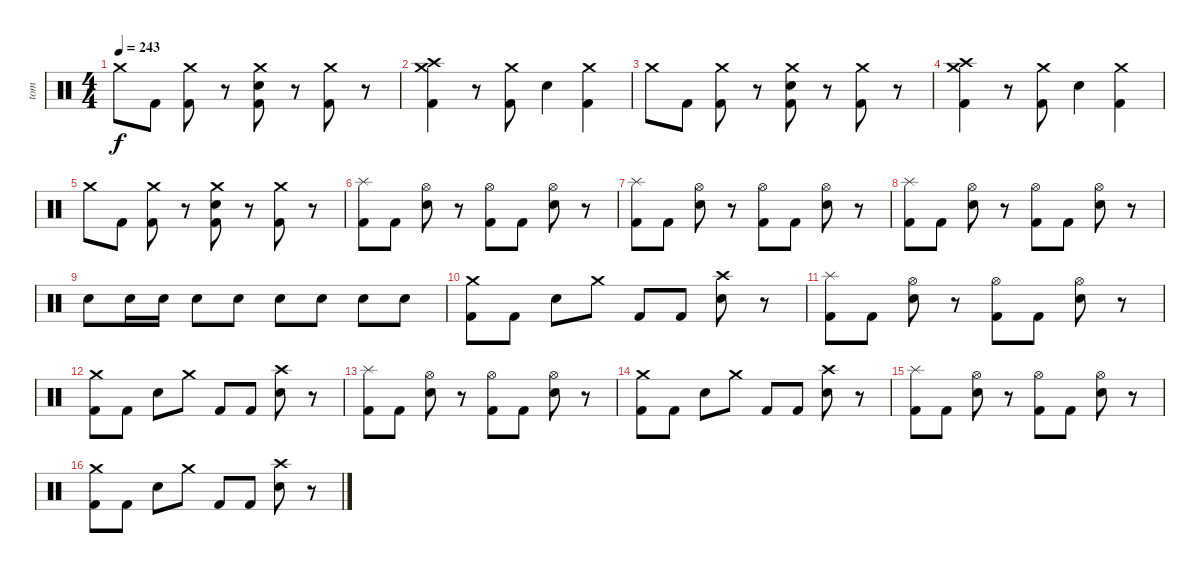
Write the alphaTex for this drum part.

\track ("tom" "tom") {instrument percussion}
\staff {score}
\articulation defaults
\ts (4 4)
\tempo 243
\clef neutral
\ks c "Crash medium (hit)".8{dy f} "Kick (hit) 2".8
("Crash medium (hit)" "Kick (hit) 2").8 r.8 ("Crash medium (hit)" "Electric Snare (hit)" "Kick (hit) 2").8 r.8 ("Crash medium (hit)" "Kick (hit) 2").8 r.8 |
("Crash high (hit)" "Crash medium (hit)" "Kick (hit) 2").4 r.8 ("Crash medium (hit)" "Kick (hit) 2").8 "Electric Snare (hit)".4 ("Crash medium (hit)" "Kick (hit) 2").4 |
"Crash medium (hit)".8 "Kick (hit) 2".8 ("Crash medium (hit)" "Kick (hit) 2").8 r.8 ("Crash medium (hit)" "Electric Snare (hit)" "Kick (hit) 2").8 r.8 ("Crash medium (hit)" "Kick (hit) 2").8 r.8 |
("Crash high (hit)" "Crash medium (hit)" "Kick (hit) 2").4 r.8 ("Crash medium (hit)" "Kick (hit) 2").8 "Electric Snare (hit)".4 ("Crash medium (hit)" "Kick (hit) 2").4 |
"Crash medium (hit)".8 "Kick (hit) 2".8 ("Crash medium (hit)" "Kick (hit) 2").8 r.8 ("Crash medium (hit)" "Electric Snare (hit)" "Kick (hit) 2").8 r.8 ("Crash medium (hit)" "Kick (hit) 2").8 r.8 |
("Splash (hit)" "Kick (hit) 2").8 "Kick (hit) 2".8 ("Hi-Hat (open)" "Electric Snare (hit)").8 r.8 ("Hi-Hat (open)" "Kick (hit) 2").8 "Kick (hit) 2".8 ("Hi-Hat (open)" "Electric Snare (hit)").8 r.8 |
("Splash (hit)" "Kick (hit) 2").8 "Kick (hit) 2".8 ("Hi-Hat (open)" "Electric Snare (hit)").8 r.8 ("Hi-Hat (open)" "Kick (hit) 2").8 "Kick (hit) 2".8 ("Hi-Hat (open)" "Electric Snare (hit)").8 r.8 |
("Splash (hit)" "Kick (hit) 2").8 "Kick (hit) 2".8 ("Hi-Hat (open)" "Electric Snare (hit)").8 r.8 ("Hi-Hat (open)" "Kick (hit) 2").8 "Kick (hit) 2".8 ("Hi-Hat (open)" "Electric Snare (hit)").8 r.8 |
"Electric Snare (hit)".8 "Electric Snare (hit)".16 "Electric Snare (hit)".16 "Electric Snare (hit)".8 "Electric Snare (hit)".8 "Electric Snare (hit)".8 "Electric Snare (hit)".8 "Electric Snare (hit)".8 "Electric Snare (hit)".8 |
("Crash medium (hit)" "Kick (hit) 2").8 "Kick (hit) 2".8 "Electric Snare (hit)".8 "Crash medium (hit)".8 "Kick (hit) 2".8 "Kick (hit) 2".8 ("Crash high (hit)" "Electric Snare (hit)").8 r.8 |
("Splash (hit)" "Kick (hit) 2").8 "Kick (hit) 2".8 ("Hi-Hat (open)" "Electric Snare (hit)").8 r.8 ("Hi-Hat (open)" "Kick (hit) 2").8 "Kick (hit) 2".8 ("Hi-Hat (open)" "Electric Snare (hit)").8 r.8 |
("Crash medium (hit)" "Kick (hit) 2").8 "Kick (hit) 2".8 "Electric Snare (hit)".8 "Crash medium (hit)".8 "Kick (hit) 2".8 "Kick (hit) 2".8 ("Crash high (hit)" "Electric Snare (hit)").8 r.8 |
("Splash (hit)" "Kick (hit) 2").8 "Kick (hit) 2".8 ("Hi-Hat (open)" "Electric Snare (hit)").8 r.8 ("Hi-Hat (open)" "Kick (hit) 2").8 "Kick (hit) 2".8 ("Hi-Hat (open)" "Electric Snare (hit)").8 r.8 |
("Crash medium (hit)" "Kick (hit) 2").8 "Kick (hit) 2".8 "Electric Snare (hit)".8 "Crash medium (hit)".8 "Kick (hit) 2".8 "Kick (hit) 2".8 ("Crash high (hit)" "Electric Snare (hit)").8 r.8 |
("Splash (hit)" "Kick (hit) 2").8 "Kick (hit) 2".8 ("Hi-Hat (open)" "Electric Snare (hit)").8 r.8 ("Hi-Hat (open)" "Kick (hit) 2").8 "Kick (hit) 2".8 ("Hi-Hat (open)" "Electric Snare (hit)").8 r.8 |
("Crash medium (hit)" "Kick (hit) 2").8 "Kick (hit) 2".8 "Electric Snare (hit)".8 "Crash medium (hit)".8 "Kick (hit) 2".8 "Kick (hit) 2".8 ("Crash high (hit)" "Electric Snare (hit)").8 r.8
